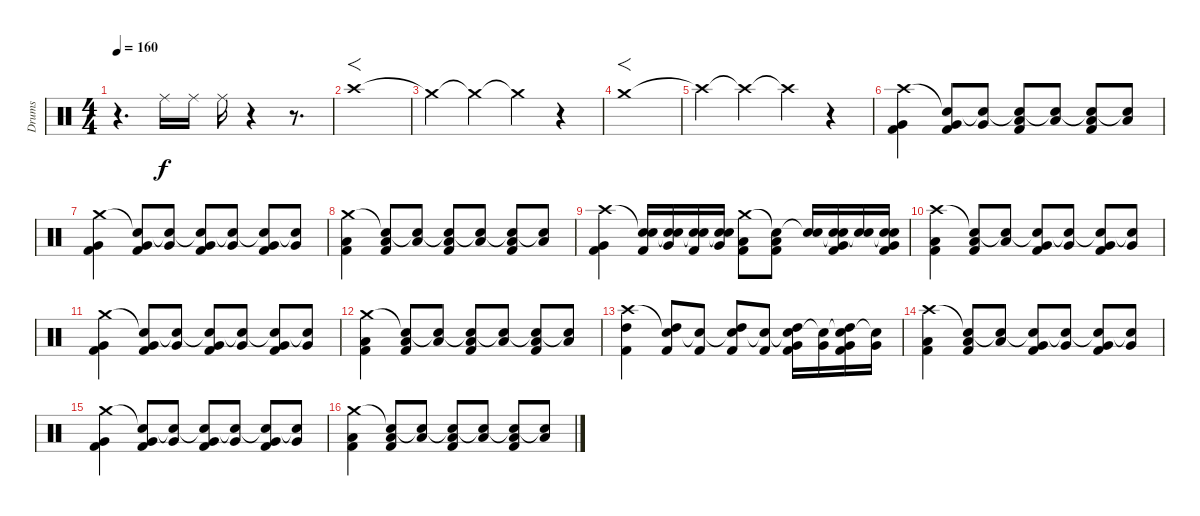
\track ("Drums" "Drums") {instrument percussion}
\staff {score}
\articulation defaults
\ts (4 4)
\tempo 160
\clef neutral
\ks c
r.4{d dy f} "Ride (middle)".16 "Ride (middle)".16 "Ride (middle)".16 r.4 r.8{d} |
"Crash high (hit)".1{f} |
"Crash medium (hit)"{t}.4 "Crash medium (hit)"{t}.4 "Crash medium (hit)"{t}.4 r.4 |
"Crash medium (hit)".1{f} |
"Crash high (hit)"{t}.4 "Crash high (hit)"{t}.4 "Crash high (hit)"{t}.4 r.4 |
("Crash high (hit)" "Very Low Tom (hit)" "Kick (hit) 2").4 ("Snare (hit)"{t} "Very Low Tom (hit)" "Kick (hit) 2").8 ("Snare (hit)"{t} "Very Low Tom (hit)").8 ("Snare (hit)"{t} "Low Floor Tom (hit)" "Kick (hit) 2").8 ("Snare (hit)"{t} "Low Floor Tom (hit)").8 ("Snare (hit)"{t} "Low Floor Tom (hit)" "Kick (hit) 2").8 ("Snare (hit)"{t} "Low Floor Tom (hit)").8 |
("Crash medium (hit)" "Kick (hit) 2" "Very Low Tom (hit)").4 ("Snare (hit)"{t} "Kick (hit) 2" "Very Low Tom (hit)").8 ("Snare (hit)"{t} "Very Low Tom (hit)").8 ("Snare (hit)"{t} "Kick (hit) 2" "Very Low Tom (hit)").8 ("Snare (hit)"{t} "Very Low Tom (hit)").8 ("Snare (hit)"{t} "Kick (hit) 2" "Very Low Tom (hit)").8 ("Snare (hit)"{t} "Very Low Tom (hit)").8 |
("Crash medium (hit)" "Kick (hit) 2" "Low Floor Tom (hit)").4 ("Snare (hit)"{t} "Kick (hit) 2" "Low Floor Tom (hit)").8 ("Snare (hit)"{t} "Low Floor Tom (hit)").8 ("Snare (hit)"{t} "Kick (hit) 2" "Low Floor Tom (hit)").8 ("Snare (hit)"{t} "Low Floor Tom (hit)").8 ("Snare (hit)"{t} "Kick (hit) 2" "Low Floor Tom (hit)").8 ("Snare (hit)"{t} "Low Floor Tom (hit)").8 |
("Crash high (hit)" "Very Low Tom (hit)" "Kick (hit) 2").4 ("Snare (hit)"{t} "Snare (hit) 2" "Kick (hit) 2").16 ("Snare (hit)"{t} "Very Low Tom (hit)" "Snare (hit) 2").16 ("Snare (hit)"{t} "Snare (hit) 2" "Kick (hit) 2").16 ("Snare (hit)"{t} "Very Low Tom (hit)" "Snare (hit) 2").16 ("Crash medium (hit)" "Low Floor Tom (hit)" "Kick (hit) 2").8 ("Snare (hit)"{t} "Low Floor Tom (hit)" "Kick (hit) 2").8 ("Snare (hit)"{t} "Snare (hit) 2").16 ("Snare (hit)"{t} "Very Low Tom (hit)" "Snare (hit) 2" "Kick (hit) 2").16 ("Snare (hit)"{t} "Snare (hit) 2").16 ("Snare (hit)"{t} "Very Low Tom (hit)" "Snare (hit) 2" "Kick (hit) 2").16 |
("Crash high (hit)" "Low Floor Tom (hit)" "Kick (hit) 2").4 ("Snare (hit)"{t} "Low Floor Tom (hit)" "Kick (hit) 2").8 ("Snare (hit)"{t} "Low Floor Tom (hit)").8 ("Snare (hit)"{t} "Very Low Tom (hit)" "Kick (hit) 2").8 ("Snare (hit)"{t} "Very Low Tom (hit)").8 ("Snare (hit)"{t} "Very Low Tom (hit)" "Kick (hit) 2").8 ("Snare (hit)"{t} "Very Low Tom (hit)").8 |
("Crash medium (hit)" "Kick (hit) 2" "Very Low Tom (hit)").4 ("Snare (hit)"{t} "Kick (hit) 2" "Very Low Tom (hit)").8 ("Snare (hit)"{t} "Very Low Tom (hit)").8 ("Snare (hit)"{t} "Kick (hit) 2" "Very Low Tom (hit)").8 ("Snare (hit)"{t} "Very Low Tom (hit)").8 ("Snare (hit)"{t} "Kick (hit) 2" "Very Low Tom (hit)").8 ("Snare (hit)"{t} "Very Low Tom (hit)").8 |
("Crash medium (hit)" "Kick (hit) 2" "Low Floor Tom (hit)").4 ("Snare (hit)"{t} "Kick (hit) 2" "Low Floor Tom (hit)").8 ("Snare (hit)"{t} "Low Floor Tom (hit)").8 ("Snare (hit)"{t} "Kick (hit) 2" "Low Floor Tom (hit)").8 ("Snare (hit)"{t} "Low Floor Tom (hit)").8 ("Snare (hit)"{t} "Kick (hit) 2" "Low Floor Tom (hit)").8 ("Snare (hit)"{t} "Low Floor Tom (hit)").8 |
("Crash high (hit)" "High Tom (hit)" "Kick (hit) 2").4 ("Snare (hit)"{t} "High Tom (hit)" "Kick (hit) 2").8 ("Snare (hit)"{t} "Kick (hit) 2").8 ("Snare (hit)"{t} "High Tom (hit)" "Kick (hit) 2").8 ("Snare (hit)"{t} "Kick (hit) 2").8 ("Snare (hit)"{t} "High Tom (hit)" "Very Low Tom (hit)" "Kick (hit) 2").16 ("Snare (hit)"{t} "Very Low Tom (hit)").16 ("Snare (hit)"{t} "High Tom (hit)" "Very Low Tom (hit)" "Kick (hit) 2").16 ("Snare (hit)"{t} "Very Low Tom (hit)").16 |
("Crash high (hit)" "Low Floor Tom (hit)" "Kick (hit) 2").4 ("Snare (hit)"{t} "Low Floor Tom (hit)" "Kick (hit) 2").8 ("Snare (hit)"{t} "Low Floor Tom (hit)").8 ("Snare (hit)"{t} "Very Low Tom (hit)" "Kick (hit) 2").8 ("Snare (hit)"{t} "Very Low Tom (hit)").8 ("Snare (hit)"{t} "Very Low Tom (hit)" "Kick (hit) 2").8 ("Snare (hit)"{t} "Very Low Tom (hit)").8 |
("Crash medium (hit)" "Kick (hit) 2" "Very Low Tom (hit)").4 ("Snare (hit)"{t} "Kick (hit) 2" "Very Low Tom (hit)").8 ("Snare (hit)"{t} "Very Low Tom (hit)").8 ("Snare (hit)"{t} "Kick (hit) 2" "Very Low Tom (hit)").8 ("Snare (hit)"{t} "Very Low Tom (hit)").8 ("Snare (hit)"{t} "Kick (hit) 2" "Very Low Tom (hit)").8 ("Snare (hit)"{t} "Very Low Tom (hit)").8 |
("Crash medium (hit)" "Kick (hit) 2" "Low Floor Tom (hit)").4 ("Snare (hit)"{t} "Kick (hit) 2" "Low Floor Tom (hit)").8 ("Snare (hit)"{t} "Low Floor Tom (hit)").8 ("Snare (hit)"{t} "Kick (hit) 2" "Low Floor Tom (hit)").8 ("Snare (hit)"{t} "Low Floor Tom (hit)").8 ("Snare (hit)"{t} "Kick (hit) 2" "Low Floor Tom (hit)").8 ("Snare (hit)"{t} "Low Floor Tom (hit)").8
